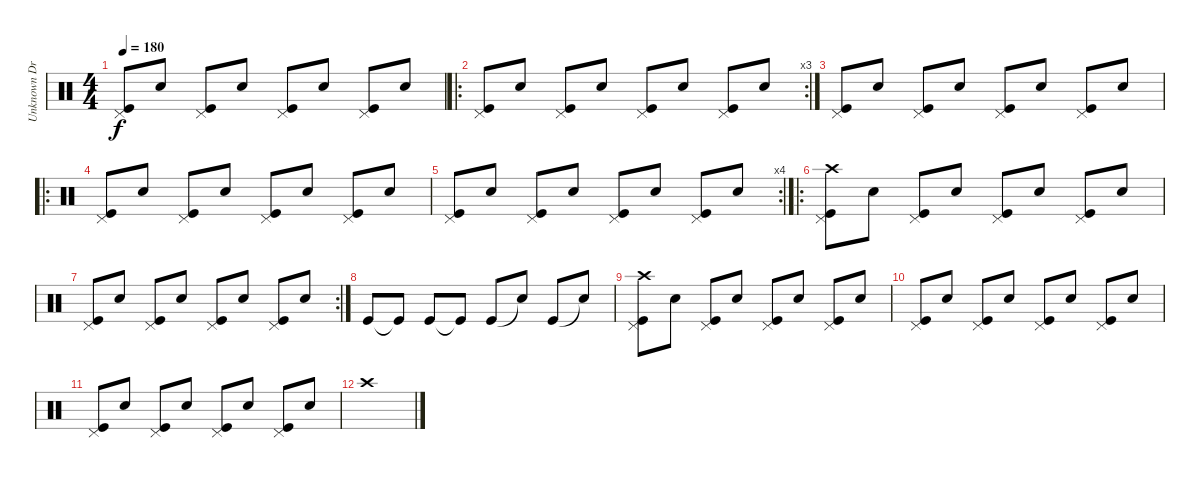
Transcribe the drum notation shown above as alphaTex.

\track ("Unknown Drummer" "Unknown Dr") {instrument percussion}
\staff {score}
\articulation defaults
\ts (4 4)
\tempo 180
\clef neutral
\ks c
("Pedal Hi-Hat (hit)" "Kick (hit)").8{dy f} "Snare (hit) 2".8 ("Pedal Hi-Hat (hit)" "Kick (hit)").8 "Snare (hit) 2".8 ("Pedal Hi-Hat (hit)" "Kick (hit)").8 "Snare (hit) 2".8 ("Pedal Hi-Hat (hit)" "Kick (hit)").8 "Snare (hit) 2".8 |
\ro
\rc 3
("Pedal Hi-Hat (hit)" "Kick (hit)").8 "Snare (hit) 2".8 ("Pedal Hi-Hat (hit)" "Kick (hit)").8 "Snare (hit) 2".8 ("Pedal Hi-Hat (hit)" "Kick (hit)").8 "Snare (hit) 2".8 ("Pedal Hi-Hat (hit)" "Kick (hit)").8 "Snare (hit) 2".8 |
("Pedal Hi-Hat (hit)" "Kick (hit)").8 "Snare (hit) 2".8 ("Pedal Hi-Hat (hit)" "Kick (hit)").8 "Snare (hit) 2".8 ("Pedal Hi-Hat (hit)" "Kick (hit)").8 "Snare (hit) 2".8 ("Pedal Hi-Hat (hit)" "Kick (hit)").8 "Snare (hit) 2".8 |
\ro
("Pedal Hi-Hat (hit)" "Kick (hit)").8 "Snare (hit) 2".8 ("Pedal Hi-Hat (hit)" "Kick (hit)").8 "Snare (hit) 2".8 ("Pedal Hi-Hat (hit)" "Kick (hit)").8 "Snare (hit) 2".8 ("Pedal Hi-Hat (hit)" "Kick (hit)").8 "Snare (hit) 2".8 |
\rc 4
("Pedal Hi-Hat (hit)" "Kick (hit)").8 "Snare (hit) 2".8 ("Pedal Hi-Hat (hit)" "Kick (hit)").8 "Snare (hit) 2".8 ("Pedal Hi-Hat (hit)" "Kick (hit)").8 "Snare (hit) 2".8 ("Pedal Hi-Hat (hit)" "Kick (hit)").8 "Snare (hit) 2".8 |
\ro
("Crash high (hit)" "Pedal Hi-Hat (hit)" "Kick (hit)").8 "Snare (hit) 2".8 ("Pedal Hi-Hat (hit)" "Kick (hit)").8 "Snare (hit) 2".8 ("Pedal Hi-Hat (hit)" "Kick (hit)").8 "Snare (hit) 2".8 ("Pedal Hi-Hat (hit)" "Kick (hit)").8 "Snare (hit) 2".8 |
\rc 2
("Pedal Hi-Hat (hit)" "Kick (hit)").8 "Snare (hit) 2".8 ("Pedal Hi-Hat (hit)" "Kick (hit)").8 "Snare (hit) 2".8 ("Pedal Hi-Hat (hit)" "Kick (hit)").8 "Snare (hit) 2".8 ("Pedal Hi-Hat (hit)" "Kick (hit)").8 "Snare (hit) 2".8 |
"Kick (hit)".8 "Kick (hit)"{t}.8 "Kick (hit)".8 "Kick (hit)"{t}.8 "Kick (hit)".8 "Snare (hit)"{t}.8 "Kick (hit)".8 "Snare (hit)"{t}.8 |
("Crash high (hit)" "Pedal Hi-Hat (hit)" "Kick (hit)").8 "Snare (hit) 2".8 ("Pedal Hi-Hat (hit)" "Kick (hit)").8 "Snare (hit) 2".8 ("Pedal Hi-Hat (hit)" "Kick (hit)").8 "Snare (hit) 2".8 ("Pedal Hi-Hat (hit)" "Kick (hit)").8 "Snare (hit) 2".8 |
("Pedal Hi-Hat (hit)" "Kick (hit)").8 "Snare (hit) 2".8 ("Pedal Hi-Hat (hit)" "Kick (hit)").8 "Snare (hit) 2".8 ("Pedal Hi-Hat (hit)" "Kick (hit)").8 "Snare (hit) 2".8 ("Pedal Hi-Hat (hit)" "Kick (hit)").8 "Snare (hit) 2".8 |
("Pedal Hi-Hat (hit)" "Kick (hit)").8 "Snare (hit) 2".8 ("Pedal Hi-Hat (hit)" "Kick (hit)").8 "Snare (hit) 2".8 ("Pedal Hi-Hat (hit)" "Kick (hit)").8 "Snare (hit) 2".8 ("Pedal Hi-Hat (hit)" "Kick (hit)").8 "Snare (hit) 2".8 |
"Crash high (hit)".1
